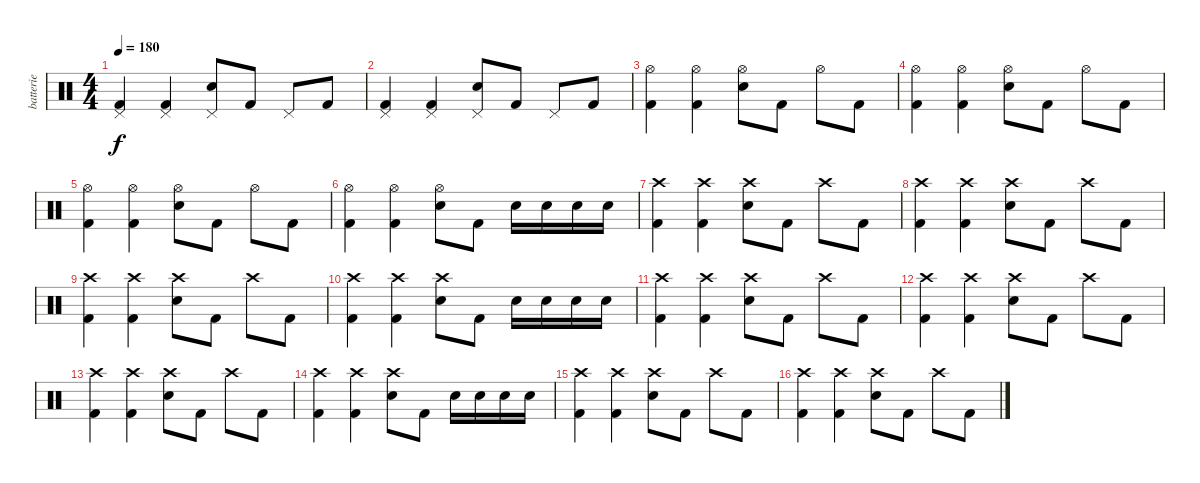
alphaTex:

\track ("batterie" "batterie") {instrument percussion}
\staff {score}
\articulation defaults
\ts (4 4)
\tempo 180
\clef neutral
\ks c
("Pedal Hi-Hat (hit)" "Kick (hit) 2").4{dy f} ("Pedal Hi-Hat (hit)" "Kick (hit) 2").4 ("Pedal Hi-Hat (hit)" "Electric Snare (hit)").8 "Kick (hit) 2".8 "Pedal Hi-Hat (hit)".8 "Kick (hit) 2".8 |
("Pedal Hi-Hat (hit)" "Kick (hit) 2").4 ("Pedal Hi-Hat (hit)" "Kick (hit) 2").4 ("Pedal Hi-Hat (hit)" "Electric Snare (hit)").8 "Kick (hit) 2".8 "Pedal Hi-Hat (hit)".8 "Kick (hit) 2".8 |
("Hi-Hat (open)" "Kick (hit) 2").4 ("Hi-Hat (open)" "Kick (hit) 2").4 ("Hi-Hat (open)" "Electric Snare (hit)").8 "Kick (hit) 2".8 "Hi-Hat (open)".8 "Kick (hit) 2".8 |
("Hi-Hat (open)" "Kick (hit) 2").4 ("Hi-Hat (open)" "Kick (hit) 2").4 ("Hi-Hat (open)" "Electric Snare (hit)").8 "Kick (hit) 2".8 "Hi-Hat (open)".8 "Kick (hit) 2".8 |
("Hi-Hat (open)" "Kick (hit) 2").4 ("Hi-Hat (open)" "Kick (hit) 2").4 ("Hi-Hat (open)" "Electric Snare (hit)").8 "Kick (hit) 2".8 "Hi-Hat (open)".8 "Kick (hit) 2".8 |
("Hi-Hat (open)" "Kick (hit) 2").4 ("Hi-Hat (open)" "Kick (hit) 2").4 ("Hi-Hat (open)" "Electric Snare (hit)").8 "Kick (hit) 2".8 "Electric Snare (hit)".16 "Electric Snare (hit)".16 "Electric Snare (hit)".16 "Electric Snare (hit)".16 |
("Crash high (hit)" "Kick (hit) 2").4 ("Crash high (hit)" "Kick (hit) 2").4 ("Crash high (hit)" "Electric Snare (hit)").8 "Kick (hit) 2".8 "Crash high (hit)".8 "Kick (hit) 2".8 |
("Crash high (hit)" "Kick (hit) 2").4 ("Crash high (hit)" "Kick (hit) 2").4 ("Crash high (hit)" "Electric Snare (hit)").8 "Kick (hit) 2".8 "Crash high (hit)".8 "Kick (hit) 2".8 |
("Crash high (hit)" "Kick (hit) 2").4 ("Crash high (hit)" "Kick (hit) 2").4 ("Crash high (hit)" "Electric Snare (hit)").8 "Kick (hit) 2".8 "Crash high (hit)".8 "Kick (hit) 2".8 |
("Crash high (hit)" "Kick (hit) 2").4 ("Crash high (hit)" "Kick (hit) 2").4 ("Crash high (hit)" "Electric Snare (hit)").8 "Kick (hit) 2".8 "Electric Snare (hit)".16 "Electric Snare (hit)".16 "Electric Snare (hit)".16 "Electric Snare (hit)".16 |
("Crash high (hit)" "Kick (hit) 2").4 ("Crash high (hit)" "Kick (hit) 2").4 ("Crash high (hit)" "Electric Snare (hit)").8 "Kick (hit) 2".8 "Crash high (hit)".8 "Kick (hit) 2".8 |
("Crash high (hit)" "Kick (hit) 2").4 ("Crash high (hit)" "Kick (hit) 2").4 ("Crash high (hit)" "Electric Snare (hit)").8 "Kick (hit) 2".8 "Crash high (hit)".8 "Kick (hit) 2".8 |
("Crash high (hit)" "Kick (hit) 2").4 ("Crash high (hit)" "Kick (hit) 2").4 ("Crash high (hit)" "Electric Snare (hit)").8 "Kick (hit) 2".8 "Crash high (hit)".8 "Kick (hit) 2".8 |
("Crash high (hit)" "Kick (hit) 2").4 ("Crash high (hit)" "Kick (hit) 2").4 ("Crash high (hit)" "Electric Snare (hit)").8 "Kick (hit) 2".8 "Electric Snare (hit)".16 "Electric Snare (hit)".16 "Electric Snare (hit)".16 "Electric Snare (hit)".16 |
("Crash high (hit)" "Kick (hit) 2").4 ("Crash high (hit)" "Kick (hit) 2").4 ("Crash high (hit)" "Electric Snare (hit)").8 "Kick (hit) 2".8 "Crash high (hit)".8 "Kick (hit) 2".8 |
("Crash high (hit)" "Kick (hit) 2").4 ("Crash high (hit)" "Kick (hit) 2").4 ("Crash high (hit)" "Electric Snare (hit)").8 "Kick (hit) 2".8 "Crash high (hit)".8 "Kick (hit) 2".8
